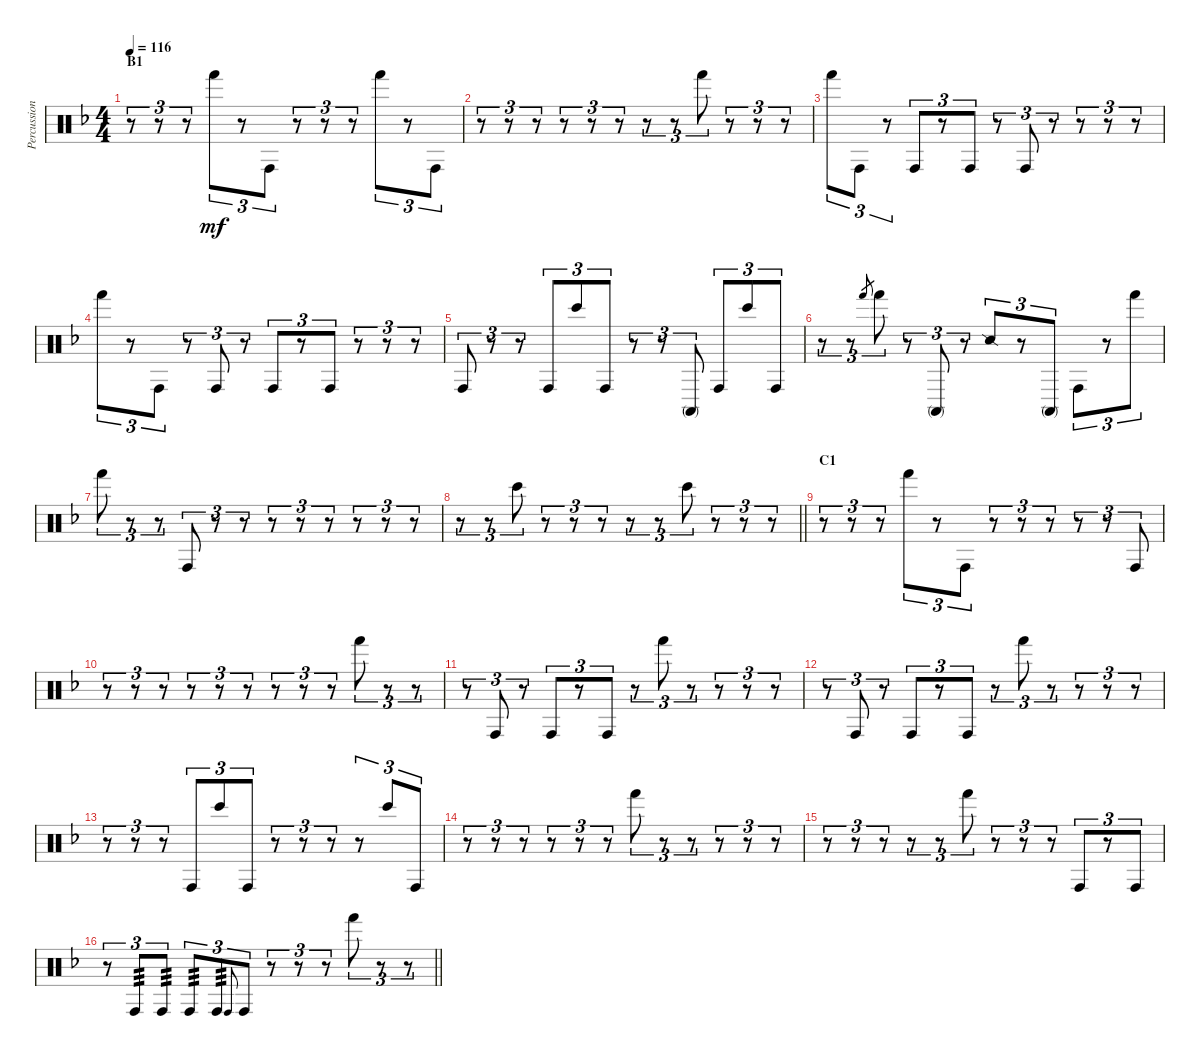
\track ("Percussion" "Percussion") {instrument percussion}
\staff {score}
\articulation defaults
\ts (4 4)
\section ("" "B1")
\tempo 116
\clef neutral
\ks f
r.8{tu (3 2) dy mf} r.8{tu (3 2)} r.8{tu (3 2)} "Hand (hit)".8{tu (3 2)} r.8{tu (3 2)} "Conga high (hit)".8{tu (3 2)} r.8{tu (3 2)} r.8{tu (3 2)} r.8{tu (3 2)} "Hand (hit)".8{tu (3 2)} r.8{tu (3 2)} "Conga high (hit)".8{tu (3 2)} |
r.8{tu (3 2)} r.8{tu (3 2)} r.8{tu (3 2)} r.8{tu (3 2)} r.8{tu (3 2)} r.8{tu (3 2)} r.8{tu (3 2)} r.8{tu (3 2)} "Hand (hit)".8{tu (3 2)} r.8{tu (3 2)} r.8{tu (3 2)} r.8{tu (3 2)} |
"Hand (hit)".8{tu (3 2)} "Conga high (hit)".8{tu (3 2)} r.8{tu (3 2)} "Conga high (hit)".8{tu (3 2)} r.8{tu (3 2)} "Conga high (hit)".8{tu (3 2)} r.8{tu (3 2)} "Conga high (hit)".8{tu (3 2)} r.8{tu (3 2)} r.8{tu (3 2)} r.8{tu (3 2)} r.8{tu (3 2)} |
"Hand (hit)".8{tu (3 2)} r.8{tu (3 2)} "Conga high (hit)".8{tu (3 2)} r.8{tu (3 2)} "Conga high (hit)".8{tu (3 2)} r.8{tu (3 2)} "Conga high (hit)".8{tu (3 2)} r.8{tu (3 2)} "Conga high (hit)".8{tu (3 2)} r.8{tu (3 2)} r.8{tu (3 2)} r.8{tu (3 2)} |
"Conga high (hit)".8{tu (3 2)} r.8{tu (3 2)} r.8{tu (3 2)} "Conga high (hit)".8{tu (3 2)} "Bongo High (hit)".8{tu (3 2)} "Conga high (hit)".8{tu (3 2)} r.8{tu (3 2)} r.8{tu (3 2)} "Conga high (mute)".8{tu (3 2)} "Conga high (hit)".8{tu (3 2)} "Bongo High (hit)".8{tu (3 2)} "Conga high (hit)".8{tu (3 2)} |
r.8{tu (3 2)} r.8{tu (3 2)} "Hand (hit)".8{gr} "Hand (hit)".8{tu (3 2)} r.8{tu (3 2)} "Conga high (mute)".8{tu (3 2)} r.8{tu (3 2)} "Snare (side stick) 2".8{tu (3 2)} r.8{tu (3 2)} "Conga high (mute)".8{tu (3 2)} "Conga high (hit)".8{tu (3 2)} r.8{tu (3 2)} "Hand (hit)".8{tu (3 2)} |
"Hand (hit)".8{tu (3 2)} r.8{tu (3 2)} r.8{tu (3 2)} "Conga high (hit)".8{tu (3 2)} r.8{tu (3 2)} r.8{tu (3 2)} r.8{tu (3 2)} r.8{tu (3 2)} r.8{tu (3 2)} r.8{tu (3 2)} r.8{tu (3 2)} r.8{tu (3 2)} |
\barLineRight lightlight
r.8{tu (3 2)} r.8{tu (3 2)} "Bongo High (hit)".8{tu (3 2)} r.8{tu (3 2)} r.8{tu (3 2)} r.8{tu (3 2)} r.8{tu (3 2)} r.8{tu (3 2)} "Bongo High (hit)".8{tu (3 2)} r.8{tu (3 2)} r.8{tu (3 2)} r.8{tu (3 2)} |
\section ("" "C1")
r.8{tu (3 2)} r.8{tu (3 2)} r.8{tu (3 2)} "Hand (hit)".8{tu (3 2)} r.8{tu (3 2)} "Conga high (hit)".8{tu (3 2)} r.8{tu (3 2)} r.8{tu (3 2)} r.8{tu (3 2)} r.8{tu (3 2)} r.8{tu (3 2)} "Conga high (hit)".8{tu (3 2)} |
r.8{tu (3 2)} r.8{tu (3 2)} r.8{tu (3 2)} r.8{tu (3 2)} r.8{tu (3 2)} r.8{tu (3 2)} r.8{tu (3 2)} r.8{tu (3 2)} r.8{tu (3 2)} "Hand (hit)".8{tu (3 2)} r.8{tu (3 2)} r.8{tu (3 2)} |
r.8{tu (3 2)} "Conga high (hit)".8{tu (3 2)} r.8{tu (3 2)} "Conga high (hit)".8{tu (3 2)} r.8{tu (3 2)} "Conga high (hit)".8{tu (3 2)} r.8{tu (3 2)} "Hand (hit)".8{tu (3 2)} r.8{tu (3 2)} r.8{tu (3 2)} r.8{tu (3 2)} r.8{tu (3 2)} |
r.8{tu (3 2)} "Conga high (hit)".8{tu (3 2)} r.8{tu (3 2)} "Conga high (hit)".8{tu (3 2)} r.8{tu (3 2)} "Conga high (hit)".8{tu (3 2)} r.8{tu (3 2)} "Hand (hit)".8{tu (3 2)} r.8{tu (3 2)} r.8{tu (3 2)} r.8{tu (3 2)} r.8{tu (3 2)} |
r.8{tu (3 2)} r.8{tu (3 2)} r.8{tu (3 2)} "Conga high (hit)".8{tu (3 2)} "Bongo High (hit)".8{tu (3 2)} "Conga high (hit)".8{tu (3 2)} r.8{tu (3 2)} r.8{tu (3 2)} r.8{tu (3 2)} r.8{tu (3 2)} "Bongo High (hit)".8{tu (3 2)} "Conga high (hit)".8{tu (3 2)} |
r.8{tu (3 2)} r.8{tu (3 2)} r.8{tu (3 2)} r.8{tu (3 2)} r.8{tu (3 2)} r.8{tu (3 2)} "Hand (hit)".8{tu (3 2)} r.8{tu (3 2)} r.8{tu (3 2)} r.8{tu (3 2)} r.8{tu (3 2)} r.8{tu (3 2)} |
r.8{tu (3 2)} r.8{tu (3 2)} r.8{tu (3 2)} r.8{tu (3 2)} r.8{tu (3 2)} "Hand (hit)".8{tu (3 2)} r.8{tu (3 2)} r.8{tu (3 2)} r.8{tu (3 2)} "Conga high (hit)".8{tu (3 2)} r.8{tu (3 2)} "Conga high (hit)".8{tu (3 2)} |
\barLineRight lightlight
r.8{tu (3 2)} "Conga high (hit)".8{tu (3 2) tp 3} "Conga high (hit)".8{tu (3 2) tp 3} "Conga high (hit)".8{tu (3 2) tp 3} "Conga high (hit)".8{tu (3 2) tp 3} "Conga high (hit)".8{gr onbeat} "Conga high (hit)".8{tu (3 2)} r.8{tu (3 2)} r.8{tu (3 2)} r.8{tu (3 2)} "Hand (hit)".8{tu (3 2)} r.8{tu (3 2)} r.8{tu (3 2)}
